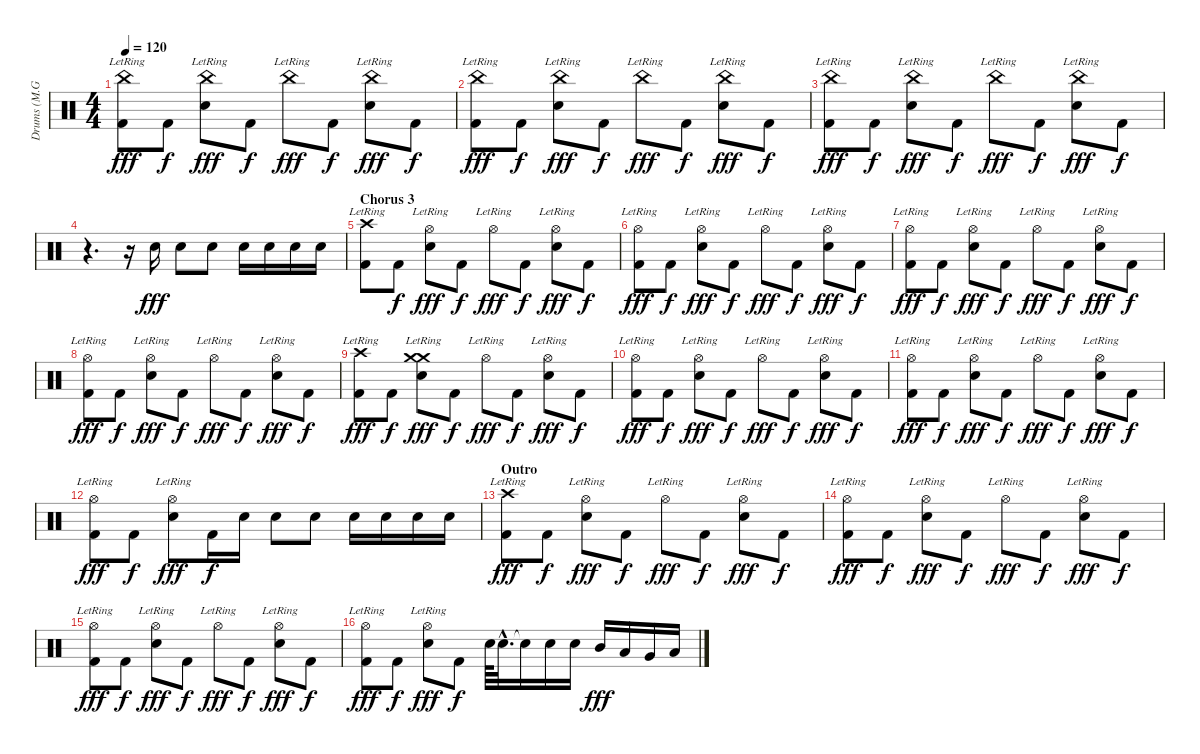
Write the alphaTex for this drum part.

\track ("Drums (M.Grosskopf)" "Drums (M.G") {instrument percussion}
\staff {score}
\articulation defaults
\ts (4 4)
\tempo 120
\clef neutral
\ks c
("China (hit)"{lr} "Kick (hit) 2").8{dy fff} "Kick (hit) 2".8{dy f} ("China (hit)"{lr} "Electric Snare (hit)").8{dy fff} "Kick (hit) 2".8{dy f} "China (hit)"{lr}.8{dy fff} "Kick (hit) 2".8{dy f} ("China (hit)"{lr} "Electric Snare (hit)").8{dy fff} "Kick (hit) 2".8{dy f} |
("China (hit)"{lr} "Kick (hit) 2").8{dy fff} "Kick (hit) 2".8{dy f} ("China (hit)"{lr} "Electric Snare (hit)").8{dy fff} "Kick (hit) 2".8{dy f} "China (hit)"{lr}.8{dy fff} "Kick (hit) 2".8{dy f} ("China (hit)"{lr} "Electric Snare (hit)").8{dy fff} "Kick (hit) 2".8{dy f} |
("China (hit)"{lr} "Kick (hit) 2").8{dy fff} "Kick (hit) 2".8{dy f} ("China (hit)"{lr} "Electric Snare (hit)").8{dy fff} "Kick (hit) 2".8{dy f} "China (hit)"{lr}.8{dy fff} "Kick (hit) 2".8{dy f} ("China (hit)"{lr} "Electric Snare (hit)").8{dy fff} "Kick (hit) 2".8{dy f} |
r.4{d} r.16 "Electric Snare (hit)".16{dy fff} "Electric Snare (hit)".8 "Electric Snare (hit)".8 "Electric Snare (hit)".16 "Electric Snare (hit)".16 "Electric Snare (hit)".16 "Electric Snare (hit)".16 |
\section ("" "Chorus 3")
("Crash high (hit)"{lr} "Kick (hit) 2").8 "Kick (hit) 2".8{dy f} ("Hi-Hat (open)"{lr} "Electric Snare (hit)").8{dy fff} "Kick (hit) 2".8{dy f} "Hi-Hat (open)"{lr}.8{dy fff} "Kick (hit) 2".8{dy f} ("Hi-Hat (open)"{lr} "Electric Snare (hit)").8{dy fff} "Kick (hit) 2".8{dy f} |
("Hi-Hat (open)"{lr} "Kick (hit) 2").8{dy fff} "Kick (hit) 2".8{dy f} ("Hi-Hat (open)"{lr} "Electric Snare (hit)").8{dy fff} "Kick (hit) 2".8{dy f} "Hi-Hat (open)"{lr}.8{dy fff} "Kick (hit) 2".8{dy f} ("Hi-Hat (open)"{lr} "Electric Snare (hit)").8{dy fff} "Kick (hit) 2".8{dy f} |
("Hi-Hat (open)"{lr} "Kick (hit) 2").8{dy fff} "Kick (hit) 2".8{dy f} ("Hi-Hat (open)"{lr} "Electric Snare (hit)").8{dy fff} "Kick (hit) 2".8{dy f} "Hi-Hat (open)"{lr}.8{dy fff} "Kick (hit) 2".8{dy f} ("Hi-Hat (open)"{lr} "Electric Snare (hit)").8{dy fff} "Kick (hit) 2".8{dy f} |
("Hi-Hat (open)"{lr} "Kick (hit) 2").8{dy fff} "Kick (hit) 2".8{dy f} ("Hi-Hat (open)"{lr} "Electric Snare (hit)").8{dy fff} "Kick (hit) 2".8{dy f} "Hi-Hat (open)"{lr}.8{dy fff} "Kick (hit) 2".8{dy f} ("Hi-Hat (open)"{lr} "Electric Snare (hit)").8{dy fff} "Kick (hit) 2".8{dy f} |
("Crash high (hit)"{lr} "Kick (hit) 2").8{dy fff} "Kick (hit) 2".8{dy f} ("Crash medium (hit)"{lr} "Crash medium (hit)"{lr} "Electric Snare (hit)").8{dy fff} "Kick (hit) 2".8{dy f} "Hi-Hat (open)"{lr}.8{dy fff} "Kick (hit) 2".8{dy f} ("Hi-Hat (open)"{lr} "Electric Snare (hit)").8{dy fff} "Kick (hit) 2".8{dy f} |
("Hi-Hat (open)"{lr} "Kick (hit) 2").8{dy fff} "Kick (hit) 2".8{dy f} ("Hi-Hat (open)"{lr} "Electric Snare (hit)").8{dy fff} "Kick (hit) 2".8{dy f} "Hi-Hat (open)"{lr}.8{dy fff} "Kick (hit) 2".8{dy f} ("Hi-Hat (open)"{lr} "Electric Snare (hit)").8{dy fff} "Kick (hit) 2".8{dy f} |
("Hi-Hat (open)"{lr} "Kick (hit) 2").8{dy fff} "Kick (hit) 2".8{dy f} ("Hi-Hat (open)"{lr} "Electric Snare (hit)").8{dy fff} "Kick (hit) 2".8{dy f} "Hi-Hat (open)"{lr}.8{dy fff} "Kick (hit) 2".8{dy f} ("Hi-Hat (open)"{lr} "Electric Snare (hit)").8{dy fff} "Kick (hit) 2".8{dy f} |
("Hi-Hat (open)"{lr} "Kick (hit) 2").8{dy fff} "Kick (hit) 2".8{dy f} ("Hi-Hat (open)"{lr} "Electric Snare (hit)").8{dy fff} "Kick (hit) 2".16{dy f} "Electric Snare (hit)".16 "Electric Snare (hit)".8 "Electric Snare (hit)".8 "Electric Snare (hit)".16 "Electric Snare (hit)".16 "Electric Snare (hit)".16 "Electric Snare (hit)".16 |
\section ("" "Outro")
("Crash high (hit)"{lr} "Kick (hit) 2").8{dy fff} "Kick (hit) 2".8{dy f} ("Hi-Hat (open)"{lr} "Electric Snare (hit)").8{dy fff} "Kick (hit) 2".8{dy f} "Hi-Hat (open)"{lr}.8{dy fff} "Kick (hit) 2".8{dy f} ("Hi-Hat (open)"{lr} "Electric Snare (hit)").8{dy fff} "Kick (hit) 2".8{dy f} |
("Hi-Hat (open)"{lr} "Kick (hit) 2").8{dy fff} "Kick (hit) 2".8{dy f} ("Hi-Hat (open)"{lr} "Electric Snare (hit)").8{dy fff} "Kick (hit) 2".8{dy f} "Hi-Hat (open)"{lr}.8{dy fff} "Kick (hit) 2".8{dy f} ("Hi-Hat (open)"{lr} "Electric Snare (hit)").8{dy fff} "Kick (hit) 2".8{dy f} |
("Hi-Hat (open)"{lr} "Kick (hit) 2").8{dy fff} "Kick (hit) 2".8{dy f} ("Hi-Hat (open)"{lr} "Electric Snare (hit)").8{dy fff} "Kick (hit) 2".8{dy f} "Hi-Hat (open)"{lr}.8{dy fff} "Kick (hit) 2".8{dy f} ("Hi-Hat (open)"{lr} "Electric Snare (hit)").8{dy fff} "Kick (hit) 2".8{dy f} |
("Hi-Hat (open)"{lr} "Kick (hit) 2").8{dy fff} "Kick (hit) 2".8{dy f} ("Hi-Hat (open)"{lr} "Electric Snare (hit)").8{dy fff} "Kick (hit) 2".8{dy f} "Electric Snare (hit)".64 "Electric Snare (hit)"{hac}.32{d} "Snare (hit)"{t}.16 "Electric Snare (hit)".16 "Electric Snare (hit)".16 "Mid Tom (hit)".16{dy fff} "Low Tom (hit)".16 "Very Low Tom (hit)".16 "Low Floor Tom (hit)".16
